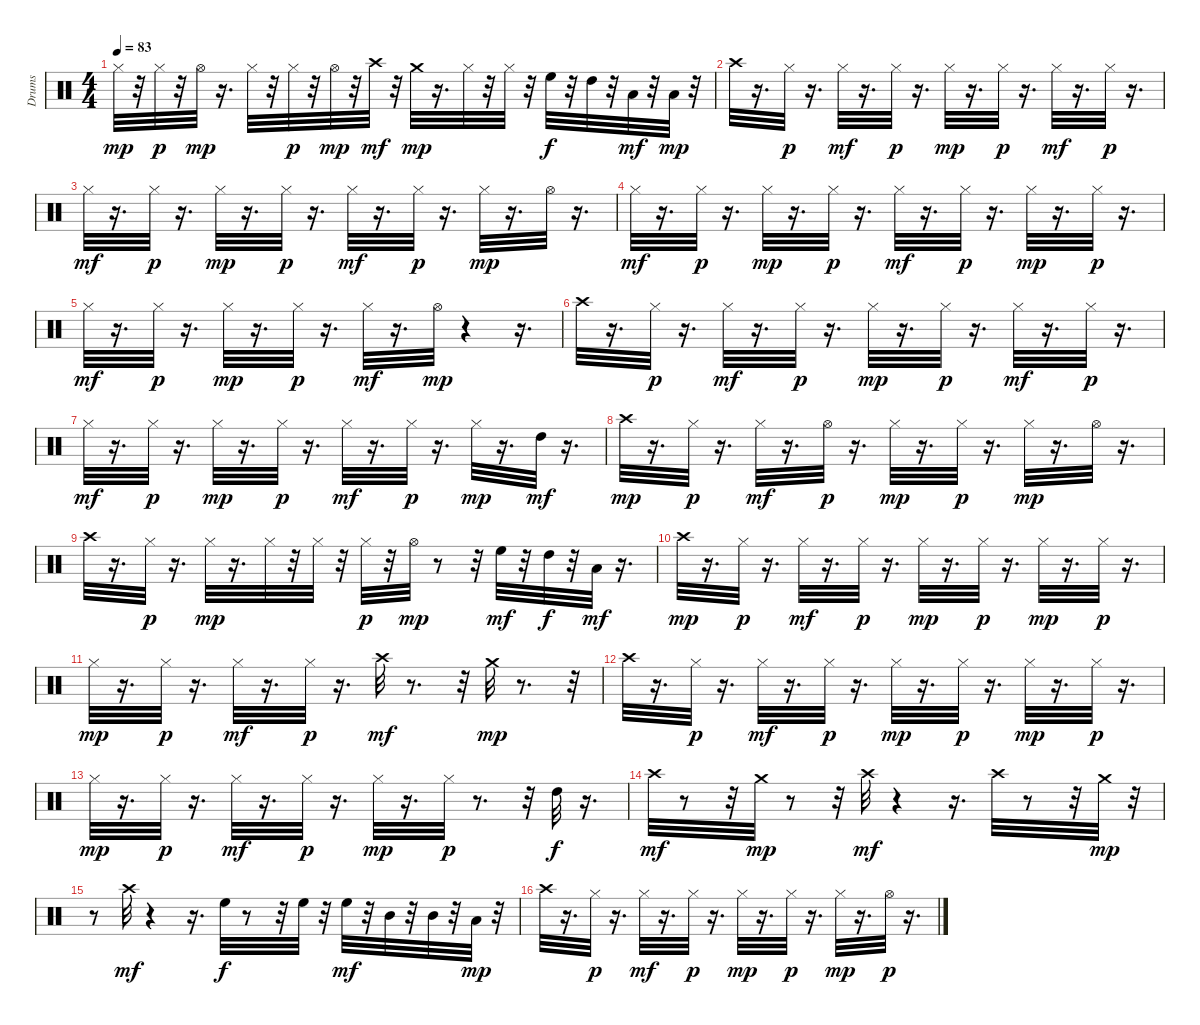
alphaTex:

\track ("Drums" "Drums") {instrument percussion}
\staff {score}
\articulation defaults
\ts (4 4)
\tempo 83
\clef neutral
\ks c "Hi-Hat (closed)".32{dy mp}
r.32 "Hi-Hat (closed)".32{dy p} r.32 "Hi-Hat (open)".32{dy mp} r.16{d} "Hi-Hat (closed)".32 r.32 "Hi-Hat (closed)".32{dy p} r.32 "Hi-Hat (open)".32{dy mp} r.32 "Crash high (hit)".32{dy mf} r.32 "Crash medium (hit)".32{dy mp} r.16{d} "Hi-Hat (closed)".32 r.32 "Hi-Hat (closed)".32 r.32 "High Floor Tom (hit)".32{dy f} r.32 "High Tom (hit)".32 r.32 "Low Tom (hit)".32{dy mf} r.32 "Low Floor Tom (hit)".32{dy mp} r.32 |
"Crash high (hit)".32 r.16{d} "Hi-Hat (closed)".32{dy p} r.16{d} "Hi-Hat (closed)".32{dy mf} r.16{d} "Hi-Hat (closed)".32{dy p} r.16{d} "Hi-Hat (closed)".32{dy mp} r.16{d} "Hi-Hat (closed)".32{dy p} r.16{d} "Hi-Hat (closed)".32{dy mf} r.16{d} "Hi-Hat (closed)".32{dy p} r.16{d} |
"Hi-Hat (closed)".32{dy mf} r.16{d} "Hi-Hat (closed)".32{dy p} r.16{d} "Hi-Hat (closed)".32{dy mp} r.16{d} "Hi-Hat (closed)".32{dy p} r.16{d} "Hi-Hat (closed)".32{dy mf} r.16{d} "Hi-Hat (closed)".32{dy p} r.16{d} "Hi-Hat (closed)".32{dy mp} r.16{d} "Hi-Hat (open)".32 r.16{d} |
"Hi-Hat (closed)".32{dy mf} r.16{d} "Hi-Hat (closed)".32{dy p} r.16{d} "Hi-Hat (closed)".32{dy mp} r.16{d} "Hi-Hat (closed)".32{dy p} r.16{d} "Hi-Hat (closed)".32{dy mf} r.16{d} "Hi-Hat (closed)".32{dy p} r.16{d} "Hi-Hat (closed)".32{dy mp} r.16{d} "Hi-Hat (closed)".32{dy p} r.16{d} |
"Hi-Hat (closed)".32{dy mf} r.16{d} "Hi-Hat (closed)".32{dy p} r.16{d} "Hi-Hat (closed)".32{dy mp} r.16{d} "Hi-Hat (closed)".32{dy p} r.16{d} "Hi-Hat (closed)".32{dy mf} r.16{d} "Hi-Hat (open)".32{dy mp} r.4 r.16{d} |
"Crash high (hit)".32 r.16{d} "Hi-Hat (closed)".32{dy p} r.16{d} "Hi-Hat (closed)".32{dy mf} r.16{d} "Hi-Hat (closed)".32{dy p} r.16{d} "Hi-Hat (closed)".32{dy mp} r.16{d} "Hi-Hat (closed)".32{dy p} r.16{d} "Hi-Hat (closed)".32{dy mf} r.16{d} "Hi-Hat (closed)".32{dy p} r.16{d} |
"Hi-Hat (closed)".32{dy mf} r.16{d} "Hi-Hat (closed)".32{dy p} r.16{d} "Hi-Hat (closed)".32{dy mp} r.16{d} "Hi-Hat (closed)".32{dy p} r.16{d} "Hi-Hat (closed)".32{dy mf} r.16{d} "Hi-Hat (closed)".32{dy p} r.16{d} "Hi-Hat (closed)".32{dy mp} r.16{d} "High Tom (hit)".32{dy mf} r.16{d} |
"Crash high (hit)".32{dy mp} r.16{d} "Hi-Hat (closed)".32{dy p} r.16{d} "Hi-Hat (closed)".32{dy mf} r.16{d} "Hi-Hat (open)".32{dy p} r.16{d} "Hi-Hat (closed)".32{dy mp} r.16{d} "Hi-Hat (closed)".32{dy p} r.16{d} "Hi-Hat (closed)".32{dy mp} r.16{d} "Hi-Hat (open)".32 r.16{d} |
"Crash high (hit)".32 r.16{d} "Hi-Hat (closed)".32{dy p} r.16{d} "Hi-Hat (closed)".32{dy mp} r.16{d} "Hi-Hat (closed)".32 r.32 "Hi-Hat (closed)".32 r.32 "Hi-Hat (closed)".32{dy p} r.32 "Hi-Hat (open)".32{dy mp} r.8 r.32 "High Floor Tom (hit)".32{dy mf} r.32 "High Tom (hit)".32{dy f} r.32 "Low Tom (hit)".32{dy mf} r.16{d} |
"Crash high (hit)".32{dy mp} r.16{d} "Hi-Hat (closed)".32{dy p} r.16{d} "Hi-Hat (closed)".32{dy mf} r.16{d} "Hi-Hat (closed)".32{dy p} r.16{d} "Hi-Hat (closed)".32{dy mp} r.16{d} "Hi-Hat (closed)".32{dy p} r.16{d} "Hi-Hat (closed)".32{dy mp} r.16{d} "Hi-Hat (closed)".32{dy p} r.16{d} |
"Hi-Hat (closed)".32{dy mp} r.16{d} "Hi-Hat (closed)".32{dy p} r.16{d} "Hi-Hat (closed)".32{dy mf} r.16{d} "Hi-Hat (closed)".32{dy p} r.16{d} "Crash high (hit)".32{dy mf} r.8{d} r.32 "Crash medium (hit)".32{dy mp} r.8{d} r.32 |
"Crash high (hit)".32 r.16{d} "Hi-Hat (closed)".32{dy p} r.16{d} "Hi-Hat (closed)".32{dy mf} r.16{d} "Hi-Hat (closed)".32{dy p} r.16{d} "Hi-Hat (closed)".32{dy mp} r.16{d} "Hi-Hat (closed)".32{dy p} r.16{d} "Hi-Hat (closed)".32{dy mp} r.16{d} "Hi-Hat (closed)".32{dy p} r.16{d} |
"Hi-Hat (closed)".32{dy mp} r.16{d} "Hi-Hat (closed)".32{dy p} r.16{d} "Hi-Hat (closed)".32{dy mf} r.16{d} "Hi-Hat (closed)".32{dy p} r.16{d} "Hi-Hat (closed)".32{dy mp} r.16{d} "Hi-Hat (closed)".32{dy p} r.8{d} r.32 "High Tom (hit)".32{dy f} r.16{d} |
"Crash high (hit)".32{dy mf} r.8 r.32 "Crash medium (hit)".32{dy mp} r.8 r.32 "Crash high (hit)".32{dy mf} r.4 r.16{d} "Crash high (hit)".32 r.8 r.32 "Crash medium (hit)".32{dy mp} r.32 |
r.8 "Crash high (hit)".32{dy mf} r.4 r.16{d} "High Floor Tom (hit)".32{dy f} r.8 r.32 "High Floor Tom (hit)".32 r.32 "High Floor Tom (hit)".32{dy mf} r.32 "Mid Tom (hit)".32 r.32 "Mid Tom (hit)".32 r.32 "Low Tom (hit)".32{dy mp} r.32 |
"Crash high (hit)".32 r.16{d} "Hi-Hat (closed)".32{dy p} r.16{d} "Hi-Hat (closed)".32{dy mf} r.16{d} "Hi-Hat (closed)".32{dy p} r.16{d} "Hi-Hat (closed)".32{dy mp} r.16{d} "Hi-Hat (closed)".32{dy p} r.16{d} "Hi-Hat (closed)".32{dy mp} r.16{d} "Hi-Hat (open)".32{dy p} r.16{d}
